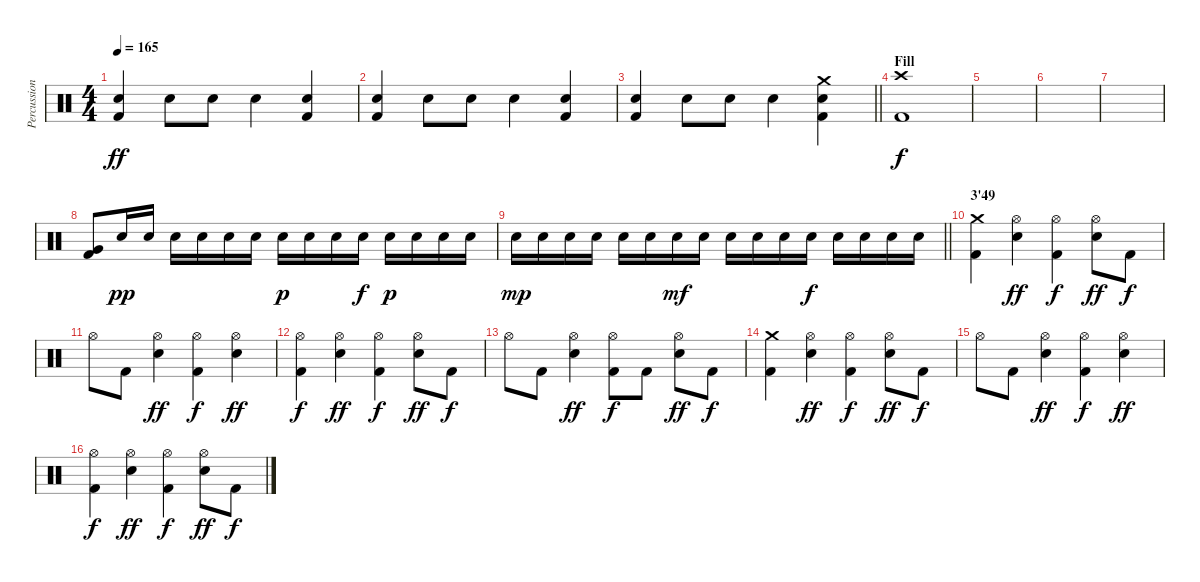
\track ("Percussions" "Percussion") {instrument percussion}
\staff {score}
\articulation defaults
\ts (4 4)
\tempo 165
\clef neutral
\ks c
("Electric Snare (hit)" "Kick (hit) 2").4{dy ff} "Electric Snare (hit)".8 "Electric Snare (hit)".8 "Electric Snare (hit)".4 ("Electric Snare (hit)" "Kick (hit) 2").4 |
("Electric Snare (hit)" "Kick (hit) 2").4 "Electric Snare (hit)".8 "Electric Snare (hit)".8 "Electric Snare (hit)".4 ("Electric Snare (hit)" "Kick (hit) 2").4 |
\barLineRight lightlight
("Electric Snare (hit)" "Kick (hit) 2").4 "Electric Snare (hit)".8 "Electric Snare (hit)".8 "Electric Snare (hit)".4 ("Crash medium (hit)" "Electric Snare (hit)" "Kick (hit) 2").4 |
\section ("" "Fill")
("Crash high (hit)" "Kick (hit) 2").1{dy f} |
|
|
|
("Very Low Tom (hit)" "Kick (hit) 2").8 "Electric Snare (hit)".16{dy pp} "Electric Snare (hit)".16 "Electric Snare (hit)".16 "Electric Snare (hit)".16 "Electric Snare (hit)".16 "Electric Snare (hit)".16 "Electric Snare (hit)".16{dy p} "Electric Snare (hit)".16 "Electric Snare (hit)".16 "Electric Snare (hit)".16{dy f} "Electric Snare (hit)".16{dy p} "Electric Snare (hit)".16 "Electric Snare (hit)".16 "Electric Snare (hit)".16 |
\barLineRight lightlight "Electric Snare (hit)".16{dy mp} "Electric Snare (hit)".16 "Electric Snare (hit)".16 "Electric Snare (hit)".16 "Electric Snare (hit)".16 "Electric Snare (hit)".16 "Electric Snare (hit)".16{dy mf} "Electric Snare (hit)".16 "Electric Snare (hit)".16 "Electric Snare (hit)".16 "Electric Snare (hit)".16 "Electric Snare (hit)".16{dy f} "Electric Snare (hit)".16 "Electric Snare (hit)".16 "Electric Snare (hit)".16 "Electric Snare (hit)".16
|
\section ("" "3'49")
("Crash medium (hit)" "Kick (hit) 2").4 ("Hi-Hat (open)" "Electric Snare (hit)").4{dy ff} ("Hi-Hat (open)" "Kick (hit) 2").4{dy f} ("Hi-Hat (open)" "Electric Snare (hit)").8{dy ff} "Kick (hit) 2".8{dy f} |
"Hi-Hat (open)".8 "Kick (hit) 2".8 ("Hi-Hat (open)" "Electric Snare (hit)").4{dy ff} ("Hi-Hat (open)" "Kick (hit) 2").4{dy f} ("Hi-Hat (open)" "Electric Snare (hit)").4{dy ff} |
("Hi-Hat (open)" "Kick (hit) 2").4{dy f} ("Hi-Hat (open)" "Electric Snare (hit)").4{dy ff} ("Hi-Hat (open)" "Kick (hit) 2").4{dy f} ("Hi-Hat (open)" "Electric Snare (hit)").8{dy ff} "Kick (hit) 2".8{dy f} |
"Hi-Hat (open)".8 "Kick (hit) 2".8 ("Hi-Hat (open)" "Electric Snare (hit)").4{dy ff} ("Hi-Hat (open)" "Kick (hit) 2").8{dy f} "Kick (hit) 2".8 ("Hi-Hat (open)" "Electric Snare (hit)").8{dy ff} "Kick (hit) 2".8{dy f} |
("Crash medium (hit)" "Kick (hit) 2").4 ("Hi-Hat (open)" "Electric Snare (hit)").4{dy ff} ("Hi-Hat (open)" "Kick (hit) 2").4{dy f} ("Hi-Hat (open)" "Electric Snare (hit)").8{dy ff} "Kick (hit) 2".8{dy f} |
"Hi-Hat (open)".8 "Kick (hit) 2".8 ("Hi-Hat (open)" "Electric Snare (hit)").4{dy ff} ("Hi-Hat (open)" "Kick (hit) 2").4{dy f} ("Hi-Hat (open)" "Electric Snare (hit)").4{dy ff} |
("Hi-Hat (open)" "Kick (hit) 2").4{dy f} ("Hi-Hat (open)" "Electric Snare (hit)").4{dy ff} ("Hi-Hat (open)" "Kick (hit) 2").4{dy f} ("Hi-Hat (open)" "Electric Snare (hit)").8{dy ff} "Kick (hit) 2".8{dy f}
